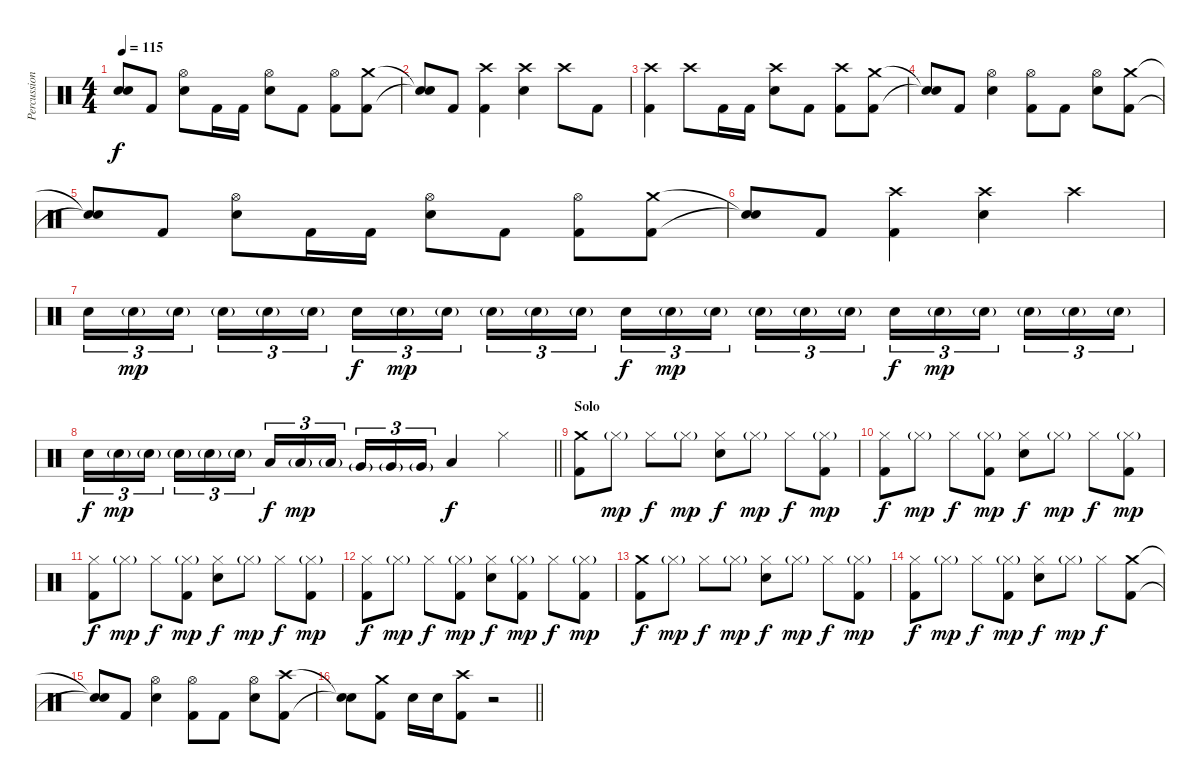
\track ("Percussion" "Percussion") {instrument percussion}
\staff {score}
\articulation defaults
\ts (4 4)
\tempo 115
\clef neutral
\ks c
("Snare (hit)"{t} "Snare (hit)"{t}).8{dy f} "Kick (hit) 2".8 ("Hi-Hat (open)" "Electric Snare (hit)").8 "Kick (hit) 2".16 "Kick (hit) 2".16 ("Hi-Hat (open)" "Electric Snare (hit)").8 "Kick (hit) 2".8 ("Hi-Hat (open)" "Kick (hit) 2").8 ("Crash medium (hit)" "Kick (hit) 2").8 |
("Snare (hit)"{t} "Snare (hit)"{t}).8 "Kick (hit) 2".8 ("Crash high (hit)" "Kick (hit) 2").4 ("Crash high (hit)" "Electric Snare (hit)").4 "Crash high (hit)".8 "Kick (hit) 2".8 |
("Crash high (hit)" "Kick (hit) 2").4 "Crash high (hit)".8 "Kick (hit) 2".16 "Kick (hit) 2".16 ("Crash high (hit)" "Electric Snare (hit)").8 "Kick (hit) 2".8 ("Crash high (hit)" "Kick (hit) 2").8 ("Crash medium (hit)" "Kick (hit) 2").8 |
("Snare (hit)"{t} "Snare (hit)"{t}).8 "Kick (hit) 2".8 ("Hi-Hat (open)" "Electric Snare (hit)").4 ("Hi-Hat (open)" "Kick (hit) 2").8 "Kick (hit) 2".8 ("Hi-Hat (open)" "Electric Snare (hit)").8 ("Crash medium (hit)" "Kick (hit) 2").8 |
("Snare (hit)"{t} "Snare (hit)"{t}).8 "Kick (hit) 2".8 ("Hi-Hat (open)" "Electric Snare (hit)").8 "Kick (hit) 2".16 "Kick (hit) 2".16 ("Hi-Hat (open)" "Electric Snare (hit)").8 "Kick (hit) 2".8 ("Hi-Hat (open)" "Kick (hit) 2").8 ("Crash medium (hit)" "Kick (hit) 2").8 |
("Snare (hit)"{t} "Snare (hit)"{t}).8 "Kick (hit) 2".8 ("Crash high (hit)" "Kick (hit) 2").4 ("Crash high (hit)" "Electric Snare (hit)").4 "Crash high (hit)".4 |
"Electric Snare (hit)".16{tu (3 2)} "Electric Snare (hit)"{g}.16{tu (3 2) dy mp} "Electric Snare (hit)"{g}.16{tu (3 2)} "Electric Snare (hit)"{g}.16{tu (3 2)} "Electric Snare (hit)"{g}.16{tu (3 2)} "Electric Snare (hit)"{g}.16{tu (3 2)} "Electric Snare (hit)".16{tu (3 2) dy f} "Electric Snare (hit)"{g}.16{tu (3 2) dy mp} "Electric Snare (hit)"{g}.16{tu (3 2)} "Electric Snare (hit)"{g}.16{tu (3 2)} "Electric Snare (hit)"{g}.16{tu (3 2)} "Electric Snare (hit)"{g}.16{tu (3 2)} "Electric Snare (hit)".16{tu (3 2) dy f} "Electric Snare (hit)"{g}.16{tu (3 2) dy mp} "Electric Snare (hit)"{g}.16{tu (3 2)} "Electric Snare (hit)"{g}.16{tu (3 2)} "Electric Snare (hit)"{g}.16{tu (3 2)} "Electric Snare (hit)"{g}.16{tu (3 2)} "Electric Snare (hit)".16{tu (3 2) dy f} "Electric Snare (hit)"{g}.16{tu (3 2) dy mp} "Electric Snare (hit)"{g}.16{tu (3 2)} "Electric Snare (hit)"{g}.16{tu (3 2)} "Electric Snare (hit)"{g}.16{tu (3 2)} "Electric Snare (hit)"{g}.16{tu (3 2)} |
\barLineRight lightlight "Electric Snare (hit)".16{tu (3 2) dy f} "Electric Snare (hit)"{g}.16{tu (3 2) dy mp} "Electric Snare (hit)"{g}.16{tu (3 2)} "Electric Snare (hit)"{g}.16{tu (3 2)} "Electric Snare (hit)"{g}.16{tu (3 2)} "Electric Snare (hit)"{g}.16{tu (3 2)} "Low Tom (hit)".16{tu (3 2) dy f} "Low Tom (hit)"{g}.16{tu (3 2) dy mp} "Low Tom (hit)"{g}.16{tu (3 2)} "Very Low Tom (hit)"{g}.16{tu (3 2)} "Very Low Tom (hit)"{g}.16{tu (3 2)} "Very Low Tom (hit)"{g}.16{tu (3 2)} "Low Floor Tom (hit)".4{dy f} "Hi-Hat (closed)".4
|
\section ("" "Solo")
("Crash medium (hit)" "Kick (hit) 2").8 "Hi-Hat (closed)"{g}.8{dy mp} "Hi-Hat (closed)".8{dy f} "Hi-Hat (closed)"{g}.8{dy mp} ("Hi-Hat (closed)" "Electric Snare (hit)").8{dy f} "Hi-Hat (closed)"{g}.8{dy mp} "Hi-Hat (closed)".8{dy f} ("Hi-Hat (closed)"{g} "Kick (hit) 2").8{dy mp} |
("Hi-Hat (closed)" "Kick (hit) 2").8{dy f} "Hi-Hat (closed)"{g}.8{dy mp} "Hi-Hat (closed)".8{dy f} ("Hi-Hat (closed)"{g} "Kick (hit) 2").8{dy mp} ("Hi-Hat (closed)" "Electric Snare (hit)").8{dy f} "Hi-Hat (closed)"{g}.8{dy mp} "Hi-Hat (closed)".8{dy f} ("Hi-Hat (closed)"{g} "Kick (hit) 2").8{dy mp} |
("Hi-Hat (closed)" "Kick (hit) 2").8{dy f} "Hi-Hat (closed)"{g}.8{dy mp} "Hi-Hat (closed)".8{dy f} ("Hi-Hat (closed)"{g} "Kick (hit) 2").8{dy mp} ("Hi-Hat (closed)" "Electric Snare (hit)").8{dy f} "Hi-Hat (closed)"{g}.8{dy mp} "Hi-Hat (closed)".8{dy f} ("Hi-Hat (closed)"{g} "Kick (hit) 2").8{dy mp} |
("Hi-Hat (closed)" "Kick (hit) 2").8{dy f} "Hi-Hat (closed)"{g}.8{dy mp} "Hi-Hat (closed)".8{dy f} ("Hi-Hat (closed)"{g} "Kick (hit) 2").8{dy mp} ("Hi-Hat (closed)" "Electric Snare (hit)").8{dy f} ("Hi-Hat (closed)"{g} "Kick (hit) 2").8{dy mp} "Hi-Hat (closed)".8{dy f} ("Hi-Hat (closed)"{g} "Kick (hit) 2").8{dy mp} |
("Crash medium (hit)" "Kick (hit) 2").8{dy f} "Hi-Hat (closed)"{g}.8{dy mp} "Hi-Hat (closed)".8{dy f} "Hi-Hat (closed)"{g}.8{dy mp} ("Hi-Hat (closed)" "Electric Snare (hit)").8{dy f} "Hi-Hat (closed)"{g}.8{dy mp} "Hi-Hat (closed)".8{dy f} ("Hi-Hat (closed)"{g} "Kick (hit) 2").8{dy mp} |
("Hi-Hat (closed)" "Kick (hit) 2").8{dy f} "Hi-Hat (closed)"{g}.8{dy mp} "Hi-Hat (closed)".8{dy f} ("Hi-Hat (closed)"{g} "Kick (hit) 2").8{dy mp} ("Hi-Hat (closed)" "Electric Snare (hit)").8{dy f} "Hi-Hat (closed)"{g}.8{dy mp} "Hi-Hat (closed)".8{dy f} ("Crash medium (hit)" "Kick (hit) 2").8 |
("Snare (hit)"{t} "Snare (hit)"{t}).8 "Kick (hit) 2".8 ("Hi-Hat (open)" "Electric Snare (hit)").4 ("Hi-Hat (open)" "Kick (hit) 2").8 "Kick (hit) 2".8 ("Hi-Hat (open)" "Electric Snare (hit)").8 ("Crash high (hit)" "Kick (hit) 2").8 |
\barLineRight lightlight
("Snare (hit)"{t} "Snare (hit)"{t}).8 ("Crash medium (hit)" "Kick (hit) 2").8 "Electric Snare (hit)".16 "Electric Snare (hit)".16 ("Crash high (hit)" "Kick (hit) 2").8 r.2
